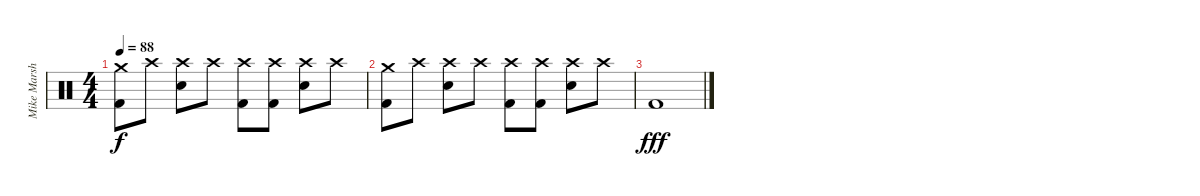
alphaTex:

\track ("Mike Marsh" "Mike Marsh") {instrument percussion}
\staff {score}
\articulation defaults
\ts (4 4)
\tempo 88
\clef neutral
\ks c
("Crash medium (hit)" "Kick (hit) 2").8{dy f} "Crash high (hit)".8 ("Crash high (hit)" "Snare (hit) 2").8 "Crash high (hit)".8 ("Crash high (hit)" "Kick (hit) 2").8 ("Crash high (hit)" "Kick (hit) 2").8 ("Crash high (hit)" "Snare (hit) 2").8 "Crash high (hit)".8 |
("Crash medium (hit)" "Kick (hit) 2").8 "Crash high (hit)".8 ("Crash high (hit)" "Snare (hit) 2").8 "Crash high (hit)".8 ("Crash high (hit)" "Kick (hit) 2").8 ("Crash high (hit)" "Kick (hit) 2").8 ("Crash high (hit)" "Snare (hit) 2").8 "Crash high (hit)".8 |
"Kick (hit) 2".1{dy fff}
